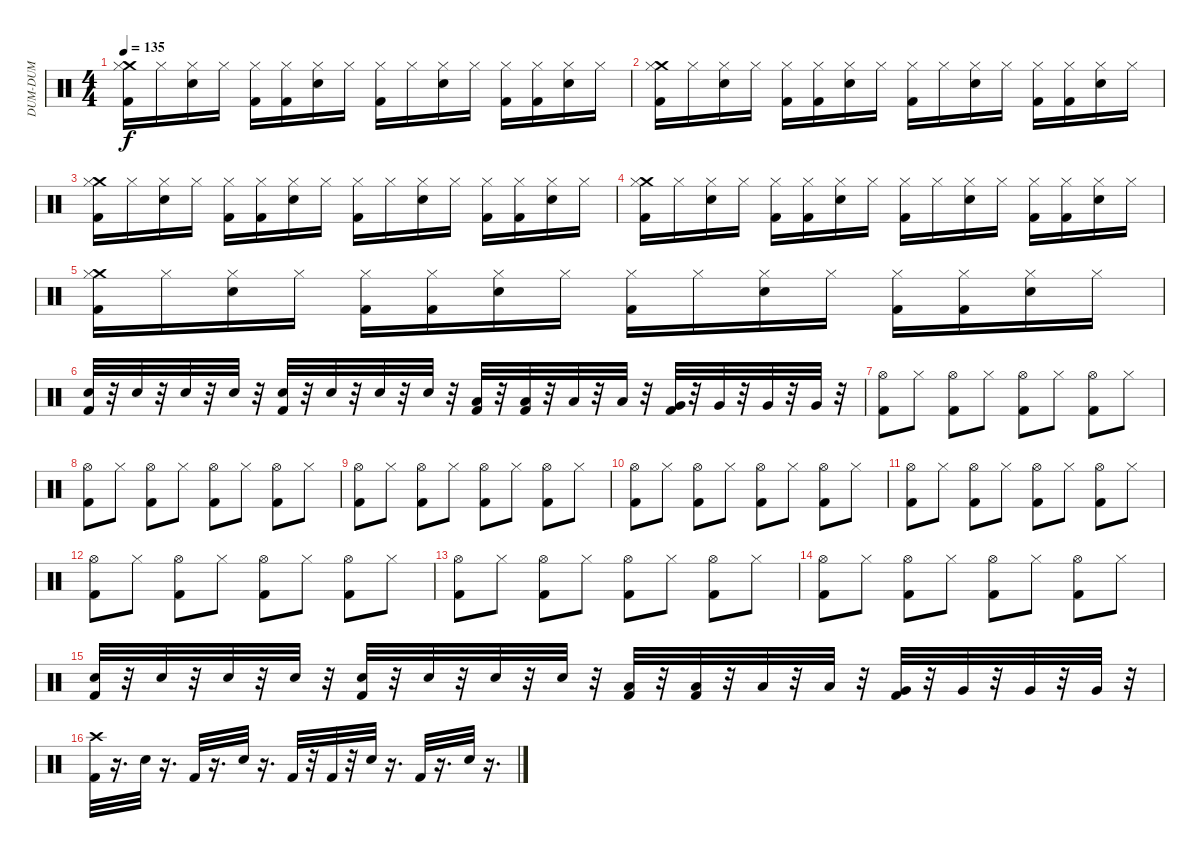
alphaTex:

\track ("DUM-DUM" "DUM-DUM") {instrument percussion}
\staff {score}
\articulation defaults
\ts (4 4)
\tempo 135
\clef neutral
\ks c
("Crash medium (hit)" "Hi-Hat (closed)" "Kick (hit) 2").16{dy f} "Hi-Hat (closed)".16 ("Hi-Hat (closed)" "Snare (hit) 2").16 "Hi-Hat (closed)".16 ("Hi-Hat (closed)" "Kick (hit) 2").16 ("Hi-Hat (closed)" "Kick (hit) 2").16 ("Hi-Hat (closed)" "Snare (hit) 2").16 "Hi-Hat (closed)".16 ("Hi-Hat (closed)" "Kick (hit) 2").16 "Hi-Hat (closed)".16 ("Hi-Hat (closed)" "Snare (hit) 2").16 "Hi-Hat (closed)".16 ("Hi-Hat (closed)" "Kick (hit) 2").16 ("Hi-Hat (closed)" "Kick (hit) 2").16 ("Hi-Hat (closed)" "Snare (hit) 2").16 "Hi-Hat (closed)".16 |
("Crash medium (hit)" "Hi-Hat (closed)" "Kick (hit) 2").16 "Hi-Hat (closed)".16 ("Hi-Hat (closed)" "Snare (hit) 2").16 "Hi-Hat (closed)".16 ("Hi-Hat (closed)" "Kick (hit) 2").16 ("Hi-Hat (closed)" "Kick (hit) 2").16 ("Hi-Hat (closed)" "Snare (hit) 2").16 "Hi-Hat (closed)".16 ("Hi-Hat (closed)" "Kick (hit) 2").16 "Hi-Hat (closed)".16 ("Hi-Hat (closed)" "Snare (hit) 2").16 "Hi-Hat (closed)".16 ("Hi-Hat (closed)" "Kick (hit) 2").16 ("Hi-Hat (closed)" "Kick (hit) 2").16 ("Hi-Hat (closed)" "Snare (hit) 2").16 "Hi-Hat (closed)".16 |
("Crash medium (hit)" "Hi-Hat (closed)" "Kick (hit) 2").16 "Hi-Hat (closed)".16 ("Hi-Hat (closed)" "Snare (hit) 2").16 "Hi-Hat (closed)".16 ("Hi-Hat (closed)" "Kick (hit) 2").16 ("Hi-Hat (closed)" "Kick (hit) 2").16 ("Hi-Hat (closed)" "Snare (hit) 2").16 "Hi-Hat (closed)".16 ("Hi-Hat (closed)" "Kick (hit) 2").16 "Hi-Hat (closed)".16 ("Hi-Hat (closed)" "Snare (hit) 2").16 "Hi-Hat (closed)".16 ("Hi-Hat (closed)" "Kick (hit) 2").16 ("Hi-Hat (closed)" "Kick (hit) 2").16 ("Hi-Hat (closed)" "Snare (hit) 2").16 "Hi-Hat (closed)".16 |
("Crash medium (hit)" "Hi-Hat (closed)" "Kick (hit) 2").16 "Hi-Hat (closed)".16 ("Hi-Hat (closed)" "Snare (hit) 2").16 "Hi-Hat (closed)".16 ("Hi-Hat (closed)" "Kick (hit) 2").16 ("Hi-Hat (closed)" "Kick (hit) 2").16 ("Hi-Hat (closed)" "Snare (hit) 2").16 "Hi-Hat (closed)".16 ("Hi-Hat (closed)" "Kick (hit) 2").16 "Hi-Hat (closed)".16 ("Hi-Hat (closed)" "Snare (hit) 2").16 "Hi-Hat (closed)".16 ("Hi-Hat (closed)" "Kick (hit) 2").16 ("Hi-Hat (closed)" "Kick (hit) 2").16 ("Hi-Hat (closed)" "Snare (hit) 2").16 "Hi-Hat (closed)".16 |
("Crash medium (hit)" "Hi-Hat (closed)" "Kick (hit) 2").16 "Hi-Hat (closed)".16 ("Hi-Hat (closed)" "Snare (hit) 2").16 "Hi-Hat (closed)".16 ("Hi-Hat (closed)" "Kick (hit) 2").16 ("Hi-Hat (closed)" "Kick (hit) 2").16 ("Hi-Hat (closed)" "Snare (hit) 2").16 "Hi-Hat (closed)".16 ("Hi-Hat (closed)" "Kick (hit) 2").16 "Hi-Hat (closed)".16 ("Hi-Hat (closed)" "Snare (hit) 2").16 "Hi-Hat (closed)".16 ("Hi-Hat (closed)" "Kick (hit) 2").16 ("Hi-Hat (closed)" "Kick (hit) 2").16 ("Hi-Hat (closed)" "Snare (hit) 2").16 "Hi-Hat (closed)".16 |
("Kick (hit) 2" "Electric Snare (hit)").32 r.32 "Electric Snare (hit)".32 r.32 "Electric Snare (hit)".32 r.32 "Electric Snare (hit)".32 r.32 ("Kick (hit) 2" "Electric Snare (hit)").32 r.32 "Electric Snare (hit)".32 r.32 "Electric Snare (hit)".32 r.32 "Electric Snare (hit)".32 r.32 ("Kick (hit) 2" "Low Tom (hit)").32 r.32 ("Kick (hit) 2" "Low Tom (hit)").32 r.32 "Low Tom (hit)".32 r.32 "Low Tom (hit)".32 r.32 ("Kick (hit) 2" "Very Low Tom (hit)").32 r.32 "Very Low Tom (hit)".32 r.32 "Very Low Tom (hit)".32 r.32 "Very Low Tom (hit)".32 r.32 |
("Kick (hit) 2" "Hi-Hat (open)").8 "Hi-Hat (closed)".8 ("Kick (hit) 2" "Hi-Hat (open)").8 "Hi-Hat (closed)".8 ("Kick (hit) 2" "Hi-Hat (open)").8 "Hi-Hat (closed)".8 ("Kick (hit) 2" "Hi-Hat (open)").8 "Hi-Hat (closed)".8 |
("Kick (hit) 2" "Hi-Hat (open)").8 "Hi-Hat (closed)".8 ("Kick (hit) 2" "Hi-Hat (open)").8 "Hi-Hat (closed)".8 ("Kick (hit) 2" "Hi-Hat (open)").8 "Hi-Hat (closed)".8 ("Kick (hit) 2" "Hi-Hat (open)").8 "Hi-Hat (closed)".8 |
("Kick (hit) 2" "Hi-Hat (open)").8 "Hi-Hat (closed)".8 ("Kick (hit) 2" "Hi-Hat (open)").8 "Hi-Hat (closed)".8 ("Kick (hit) 2" "Hi-Hat (open)").8 "Hi-Hat (closed)".8 ("Kick (hit) 2" "Hi-Hat (open)").8 "Hi-Hat (closed)".8 |
("Kick (hit) 2" "Hi-Hat (open)").8 "Hi-Hat (closed)".8 ("Kick (hit) 2" "Hi-Hat (open)").8 "Hi-Hat (closed)".8 ("Kick (hit) 2" "Hi-Hat (open)").8 "Hi-Hat (closed)".8 ("Kick (hit) 2" "Hi-Hat (open)").8 "Hi-Hat (closed)".8 |
("Kick (hit) 2" "Hi-Hat (open)").8 "Hi-Hat (closed)".8 ("Kick (hit) 2" "Hi-Hat (open)").8 "Hi-Hat (closed)".8 ("Kick (hit) 2" "Hi-Hat (open)").8 "Hi-Hat (closed)".8 ("Kick (hit) 2" "Hi-Hat (open)").8 "Hi-Hat (closed)".8 |
("Kick (hit) 2" "Hi-Hat (open)").8 "Hi-Hat (closed)".8 ("Kick (hit) 2" "Hi-Hat (open)").8 "Hi-Hat (closed)".8 ("Kick (hit) 2" "Hi-Hat (open)").8 "Hi-Hat (closed)".8 ("Kick (hit) 2" "Hi-Hat (open)").8 "Hi-Hat (closed)".8 |
("Kick (hit) 2" "Hi-Hat (open)").8 "Hi-Hat (closed)".8 ("Kick (hit) 2" "Hi-Hat (open)").8 "Hi-Hat (closed)".8 ("Kick (hit) 2" "Hi-Hat (open)").8 "Hi-Hat (closed)".8 ("Kick (hit) 2" "Hi-Hat (open)").8 "Hi-Hat (closed)".8 |
("Kick (hit) 2" "Hi-Hat (open)").8 "Hi-Hat (closed)".8 ("Kick (hit) 2" "Hi-Hat (open)").8 "Hi-Hat (closed)".8 ("Kick (hit) 2" "Hi-Hat (open)").8 "Hi-Hat (closed)".8 ("Kick (hit) 2" "Hi-Hat (open)").8 "Hi-Hat (closed)".8 |
("Kick (hit) 2" "Electric Snare (hit)").32 r.32 "Electric Snare (hit)".32 r.32 "Electric Snare (hit)".32 r.32 "Electric Snare (hit)".32 r.32 ("Kick (hit) 2" "Electric Snare (hit)").32 r.32 "Electric Snare (hit)".32 r.32 "Electric Snare (hit)".32 r.32 "Electric Snare (hit)".32 r.32 ("Kick (hit) 2" "Low Tom (hit)").32 r.32 ("Kick (hit) 2" "Low Tom (hit)").32 r.32 "Low Tom (hit)".32 r.32 "Low Tom (hit)".32 r.32 ("Kick (hit) 2" "Very Low Tom (hit)").32 r.32 "Very Low Tom (hit)".32 r.32 "Very Low Tom (hit)".32 r.32 "Very Low Tom (hit)".32 r.32 |
("Kick (hit) 2" "Crash high (hit)").32 r.16{d} "Electric Snare (hit)".32 r.16{d} "Kick (hit) 2".32 r.16{d} "Electric Snare (hit)".32 r.16{d} "Kick (hit) 2".32 r.32 "Kick (hit) 2".32 r.32 "Electric Snare (hit)".32 r.16{d} "Kick (hit) 2".32 r.16{d} "Electric Snare (hit)".32 r.16{d}
